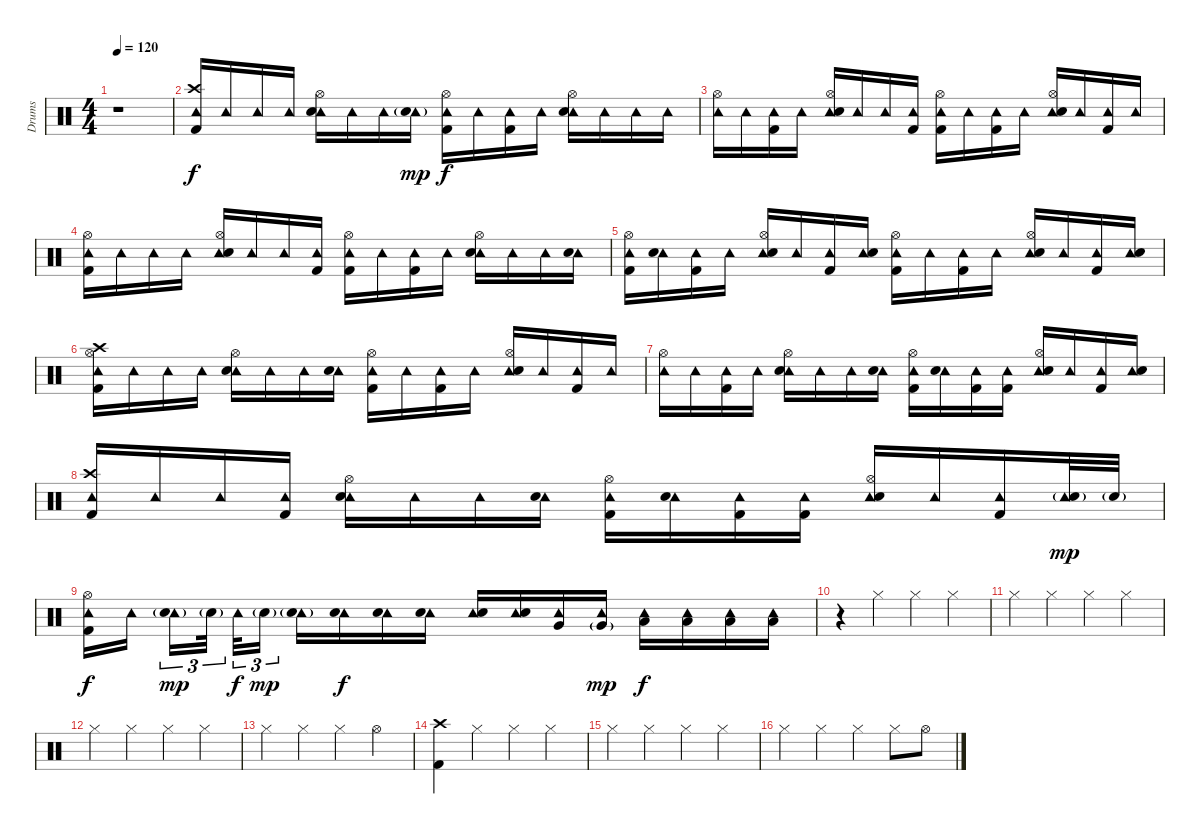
\track ("Drums" "Drums") {instrument percussion}
\staff {score}
\articulation defaults
\ts (4 4)
\tempo 120
\clef neutral
\ks c
r.1{dy f} |
("Tambourine (hit)" "Crash high (hit)" "Kick (hit) 2").16 "Tambourine (hit)".16 "Tambourine (hit)".16 "Tambourine (hit)".16 ("Tambourine (hit)" "Hi-Hat (open)" "Electric Snare (hit)").16 "Tambourine (hit)".16 "Tambourine (hit)".16 ("Tambourine (hit)" "Electric Snare (hit)"{g}).16{dy mp} ("Tambourine (hit)" "Hi-Hat (open)" "Kick (hit) 2").16{dy f} "Tambourine (hit)".16 ("Tambourine (hit)" "Kick (hit) 2").16 "Tambourine (hit)".16 ("Tambourine (hit)" "Hi-Hat (open)" "Electric Snare (hit)").16 "Tambourine (hit)".16 "Tambourine (hit)".16 "Tambourine (hit)".16 |
("Tambourine (hit)" "Hi-Hat (open)").16 "Tambourine (hit)".16 ("Tambourine (hit)" "Kick (hit) 2").16 "Tambourine (hit)".16 ("Tambourine (hit)" "Hi-Hat (open)" "Electric Snare (hit)").16 "Tambourine (hit)".16 "Tambourine (hit)".16 ("Tambourine (hit)" "Kick (hit) 2").16 ("Tambourine (hit)" "Hi-Hat (open)" "Kick (hit) 2").16 "Tambourine (hit)".16 ("Tambourine (hit)" "Kick (hit) 2").16 "Tambourine (hit)".16 ("Tambourine (hit)" "Hi-Hat (open)" "Electric Snare (hit)").16 "Tambourine (hit)".16 ("Tambourine (hit)" "Kick (hit) 2").16 "Tambourine (hit)".16 |
("Tambourine (hit)" "Hi-Hat (open)" "Kick (hit) 2").16 "Tambourine (hit)".16 "Tambourine (hit)".16 "Tambourine (hit)".16 ("Tambourine (hit)" "Hi-Hat (open)" "Electric Snare (hit)").16 "Tambourine (hit)".16 "Tambourine (hit)".16 ("Tambourine (hit)" "Kick (hit) 2").16 ("Tambourine (hit)" "Hi-Hat (open)" "Kick (hit) 2").16 "Tambourine (hit)".16 ("Tambourine (hit)" "Kick (hit) 2").16 "Tambourine (hit)".16 ("Tambourine (hit)" "Hi-Hat (open)" "Electric Snare (hit)").16 "Tambourine (hit)".16 "Tambourine (hit)".16 ("Tambourine (hit)" "Electric Snare (hit)").16 |
("Tambourine (hit)" "Hi-Hat (open)" "Kick (hit) 2").16 ("Tambourine (hit)" "Electric Snare (hit)").16 ("Tambourine (hit)" "Kick (hit) 2").16 "Tambourine (hit)".16 ("Tambourine (hit)" "Hi-Hat (open)" "Electric Snare (hit)").16 "Tambourine (hit)".16 ("Tambourine (hit)" "Kick (hit) 2").16 ("Tambourine (hit)" "Electric Snare (hit)").16 ("Tambourine (hit)" "Hi-Hat (open)" "Kick (hit) 2").16 "Tambourine (hit)".16 ("Tambourine (hit)" "Kick (hit) 2").16 "Tambourine (hit)".16 ("Tambourine (hit)" "Hi-Hat (open)" "Electric Snare (hit)").16 "Tambourine (hit)".16 ("Tambourine (hit)" "Kick (hit) 2").16 ("Tambourine (hit)" "Electric Snare (hit)").16 |
("Tambourine (hit)" "Crash high (hit)" "Hi-Hat (open)" "Kick (hit) 2").16 "Tambourine (hit)".16 "Tambourine (hit)".16 "Tambourine (hit)".16 ("Tambourine (hit)" "Hi-Hat (open)" "Electric Snare (hit)").16 "Tambourine (hit)".16 "Tambourine (hit)".16 ("Tambourine (hit)" "Electric Snare (hit)").16 ("Tambourine (hit)" "Hi-Hat (open)" "Kick (hit) 2").16 "Tambourine (hit)".16 ("Tambourine (hit)" "Kick (hit) 2").16 "Tambourine (hit)".16 ("Tambourine (hit)" "Hi-Hat (open)" "Electric Snare (hit)").16 "Tambourine (hit)".16 ("Tambourine (hit)" "Kick (hit) 2").16 "Tambourine (hit)".16 |
("Tambourine (hit)" "Hi-Hat (open)").16 "Tambourine (hit)".16 ("Tambourine (hit)" "Kick (hit) 2").16 "Tambourine (hit)".16 ("Tambourine (hit)" "Hi-Hat (open)" "Electric Snare (hit)").16 "Tambourine (hit)".16 "Tambourine (hit)".16 ("Tambourine (hit)" "Electric Snare (hit)").16 ("Tambourine (hit)" "Hi-Hat (open)" "Kick (hit) 2").16 ("Tambourine (hit)" "Electric Snare (hit)").16 ("Tambourine (hit)" "Kick (hit) 2").16 ("Tambourine (hit)" "Kick (hit) 2").16 ("Tambourine (hit)" "Hi-Hat (open)" "Electric Snare (hit)").16 "Tambourine (hit)".16 ("Tambourine (hit)" "Kick (hit) 2").16 ("Tambourine (hit)" "Electric Snare (hit)").16 |
("Tambourine (hit)" "Crash high (hit)" "Kick (hit) 2").16 "Tambourine (hit)".16 "Tambourine (hit)".16 ("Tambourine (hit)" "Kick (hit) 2").16 ("Tambourine (hit)" "Hi-Hat (open)" "Electric Snare (hit)").16 "Tambourine (hit)".16 "Tambourine (hit)".16 ("Tambourine (hit)" "Electric Snare (hit)").16 ("Tambourine (hit)" "Hi-Hat (open)" "Kick (hit) 2").16 ("Tambourine (hit)" "Electric Snare (hit)").16 ("Tambourine (hit)" "Kick (hit) 2").16 ("Tambourine (hit)" "Kick (hit) 2").16 ("Tambourine (hit)" "Hi-Hat (open)" "Electric Snare (hit)").16 "Tambourine (hit)".16 ("Tambourine (hit)" "Kick (hit) 2").16 ("Tambourine (hit)" "Electric Snare (hit)"{g}).32{dy mp} "Electric Snare (hit)"{g}.32 |
("Tambourine (hit)" "Hi-Hat (open)" "Kick (hit) 2").16{dy f} "Tambourine (hit)".16{beam splitsecondary} ("Tambourine (hit)" "Electric Snare (hit)"{g}).16{tu (3 2) dy mp} "Electric Snare (hit)"{g}.32{tu (3 2) beam splitsecondary} "Tambourine (hit)".32{tu (3 2) dy f} "Electric Snare (hit)"{g}.16{tu (3 2) dy mp} ("Tambourine (hit)" "Electric Snare (hit)"{g}).16 ("Tambourine (hit)" "Electric Snare (hit)").16{dy f} ("Tambourine (hit)" "Electric Snare (hit)").16 ("Tambourine (hit)" "Electric Snare (hit)").16 ("Tambourine (hit)" "Electric Snare (hit)").16 ("Tambourine (hit)" "Electric Snare (hit)").16 ("Tambourine (hit)" "Very Low Tom (hit)").16 ("Tambourine (hit)" "Very Low Tom (hit)"{g}).16{dy mp} ("Tambourine (hit)" "Low Floor Tom (hit)").16{dy f} ("Tambourine (hit)" "Low Floor Tom (hit)").16 ("Tambourine (hit)" "Low Floor Tom (hit)").16 ("Tambourine (hit)" "Low Floor Tom (hit)").16 |
r.4 "Hi-Hat (closed)".4 "Hi-Hat (closed)".4 "Hi-Hat (closed)".4 |
"Hi-Hat (closed)".4 "Hi-Hat (closed)".4 "Hi-Hat (closed)".4 "Hi-Hat (closed)".4 |
"Hi-Hat (closed)".4 "Hi-Hat (closed)".4 "Hi-Hat (closed)".4 "Hi-Hat (closed)".4 |
"Hi-Hat (closed)".4 "Hi-Hat (closed)".4 "Hi-Hat (closed)".4 "Hi-Hat (open)".4 |
("Crash high (hit)" "Kick (hit) 2").4 "Hi-Hat (closed)".4 "Hi-Hat (closed)".4 "Hi-Hat (closed)".4 |
"Hi-Hat (closed)".4 "Hi-Hat (closed)".4 "Hi-Hat (closed)".4 "Hi-Hat (closed)".4 |
"Hi-Hat (closed)".4 "Hi-Hat (closed)".4 "Hi-Hat (closed)".4 "Hi-Hat (closed)".8 "Hi-Hat (open)".8
